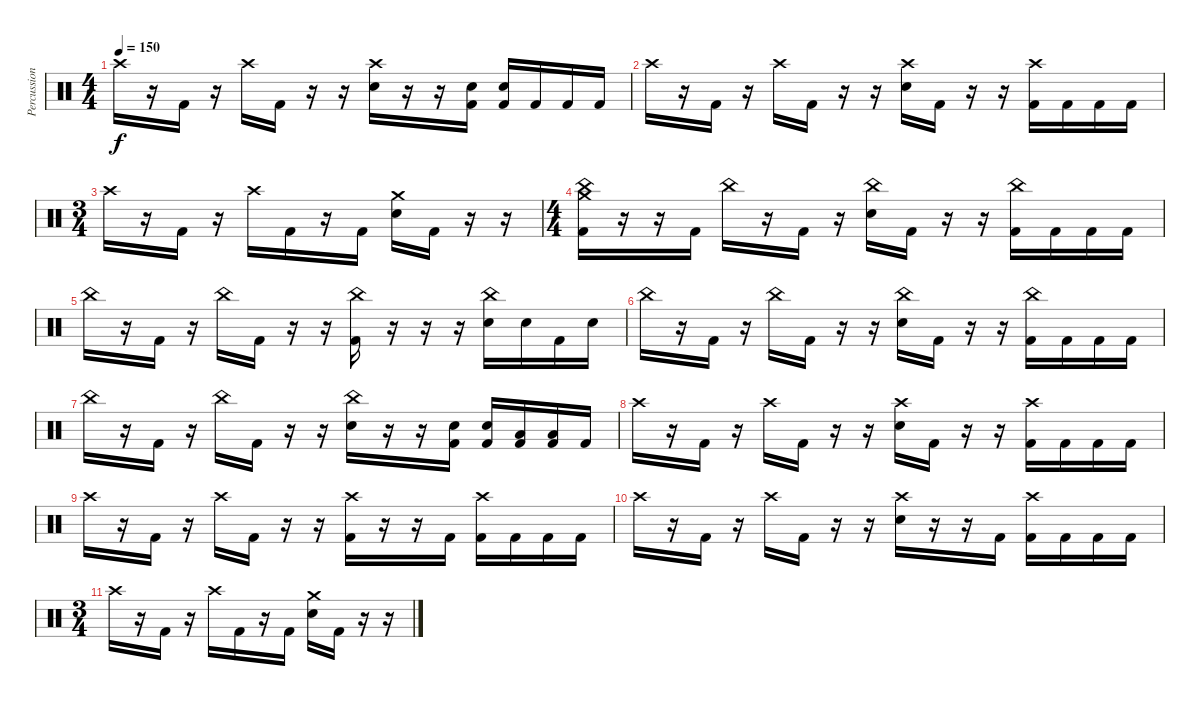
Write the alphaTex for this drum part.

\track ("Percussion" "Percussion") {instrument percussion}
\staff {score}
\articulation defaults
\ts (4 4)
\tempo 150
\clef neutral
\ks c "Crash high (hit)".16{dy f}
r.16 "Kick (hit) 2".16 r.16 "Crash high (hit)".16 "Kick (hit) 2".16 r.16 r.16 ("Crash high (hit)" "Snare (hit) 2").16 r.16 r.16 ("Snare (hit) 2" "Kick (hit) 2").16 ("Snare (hit) 2" "Kick (hit) 2").16 "Kick (hit) 2".16 "Kick (hit) 2".16 "Kick (hit) 2".16 |
"Crash high (hit)".16 r.16 "Kick (hit) 2".16 r.16 "Crash high (hit)".16 "Kick (hit) 2".16 r.16 r.16 ("Crash high (hit)" "Snare (hit) 2").16 "Kick (hit) 2".16 r.16 r.16 ("Crash high (hit)" "Kick (hit) 2").16 "Kick (hit) 2".16 "Kick (hit) 2".16 "Kick (hit) 2".16 |
\ts (3 4)
"Crash high (hit)".16 r.16 "Kick (hit) 2".16 r.16 "Crash high (hit)".16 "Kick (hit) 2".16 r.16 "Kick (hit) 2".16 ("Crash medium (hit)" "Snare (hit) 2").16 "Kick (hit) 2".16 r.16 r.16 |
\ts (4 4)
("Crash medium (hit)" "China (hit)" "Kick (hit) 2").16 r.16 r.16 "Kick (hit) 2".16 "China (hit)".16 r.16 "Kick (hit) 2".16 r.16 ("China (hit)" "Snare (hit) 2").16 "Kick (hit) 2".16 r.16 r.16 ("China (hit)" "Kick (hit) 2").16 "Kick (hit) 2".16 "Kick (hit) 2".16 "Kick (hit) 2".16 |
"China (hit)".16 r.16 "Kick (hit) 2".16 r.16 "China (hit)".16 "Kick (hit) 2".16 r.16 r.16 ("China (hit)" "Kick (hit) 2").16 r.16 r.16 r.16 ("China (hit)" "Snare (hit) 2").16 "Snare (hit) 2".16 "Kick (hit) 2".16 "Snare (hit) 2".16 |
"China (hit)".16 r.16 "Kick (hit) 2".16 r.16 "China (hit)".16 "Kick (hit) 2".16 r.16 r.16 ("China (hit)" "Snare (hit) 2").16 "Kick (hit) 2".16 r.16 r.16 ("China (hit)" "Kick (hit) 2").16 "Kick (hit) 2".16 "Kick (hit) 2".16 "Kick (hit) 2".16 |
"China (hit)".16 r.16 "Kick (hit) 2".16 r.16 "China (hit)".16 "Kick (hit) 2".16 r.16 r.16 ("China (hit)" "Snare (hit) 2").16 r.16 r.16 ("Snare (hit) 2" "Kick (hit) 2").16 ("Snare (hit) 2" "Kick (hit) 2").16 ("Low Tom (hit)" "Kick (hit) 2").16 ("Low Floor Tom (hit)" "Kick (hit) 2").16 "Kick (hit) 2".16 |
"Crash high (hit)".16 r.16 "Kick (hit) 2".16 r.16 "Crash high (hit)".16 "Kick (hit) 2".16 r.16 r.16 ("Crash high (hit)" "Snare (hit) 2").16 "Kick (hit) 2".16 r.16 r.16 ("Crash high (hit)" "Kick (hit) 2").16 "Kick (hit) 2".16 "Kick (hit) 2".16 "Kick (hit) 2".16 |
"Crash high (hit)".16 r.16 "Kick (hit) 2".16 r.16 "Crash high (hit)".16 "Kick (hit) 2".16 r.16 r.16 ("Crash high (hit)" "Kick (hit) 2").16 r.16 r.16 "Kick (hit) 2".16 ("Crash high (hit)" "Kick (hit) 2").16 "Kick (hit) 2".16 "Kick (hit) 2".16 "Kick (hit) 2".16 |
"Crash high (hit)".16 r.16 "Kick (hit) 2".16 r.16 "Crash high (hit)".16 "Kick (hit) 2".16 r.16 r.16 ("Crash high (hit)" "Snare (hit) 2").16 r.16 r.16 "Kick (hit) 2".16 ("Crash high (hit)" "Kick (hit) 2").16 "Kick (hit) 2".16 "Kick (hit) 2".16 "Kick (hit) 2".16 |
\ts (3 4)
"Crash high (hit)".16 r.16 "Kick (hit) 2".16 r.16 "Crash high (hit)".16 "Kick (hit) 2".16 r.16 "Kick (hit) 2".16 ("Crash medium (hit)" "Snare (hit) 2").16 "Kick (hit) 2".16 r.16 r.16
